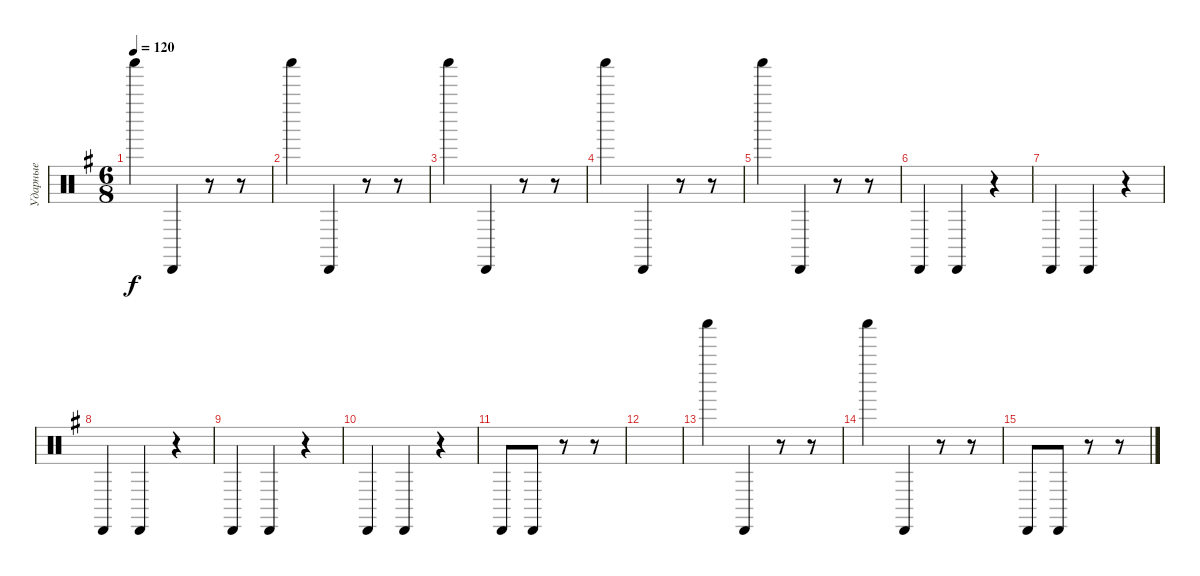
\track ("Ударные" "Ударные") {instrument percussion}
\staff {score}
\articulation defaults
\ts (6 8)
\tempo 120
\clef neutral
\ks eminor "Shaker (hit)".4{dy f} "Cabasa (hit)".4
r.8 r.8 |
"Shaker (hit)".4 "Cabasa (hit)".4 r.8 r.8 |
"Shaker (hit)".4 "Cabasa (hit)".4 r.8 r.8 |
"Shaker (hit)".4 "Cabasa (hit)".4 r.8 r.8 |
"Shaker (hit)".4 "Cabasa (hit)".4 r.8 r.8 |
"Cabasa (hit)".4 "Cabasa (hit)".4 r.4 |
"Cabasa (hit)".4 "Cabasa (hit)".4 r.4 |
"Cabasa (hit)".4 "Cabasa (hit)".4 r.4 |
"Cabasa (hit)".4 "Cabasa (hit)".4 r.4 |
"Cabasa (hit)".4 "Cabasa (hit)".4 r.4 |
"Cabasa (hit)".8 "Cabasa (hit)".8 r.8 r.8 |
|
"Shaker (hit)".4 "Cabasa (hit)".4 r.8 r.8 |
"Shaker (hit)".4 "Cabasa (hit)".4 r.8 r.8 |
"Cabasa (hit)".8 "Cabasa (hit)".8 r.8 r.8
